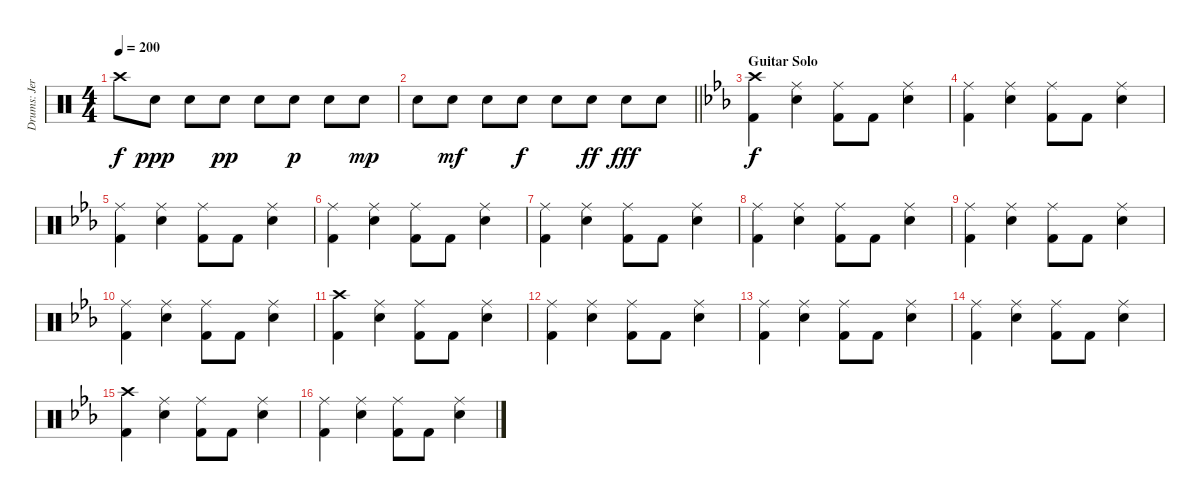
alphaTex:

\track ("Drums: Jere Luokkamäki" "Drums: Jer") {instrument percussion}
\staff {score}
\articulation defaults
\ts (4 4)
\tempo 200
\clef neutral
\ks aminor "Crash high (hit)".8{dy f} "Electric Snare (hit)".8{dy ppp} "Electric Snare (hit)".8 "Electric Snare (hit)".8{dy pp} "Electric Snare (hit)".8 "Electric Snare (hit)".8{dy p} "Electric Snare (hit)".8 "Electric Snare (hit)".8{dy mp}
|
\barLineRight lightlight "Electric Snare (hit)".8 "Electric Snare (hit)".8{dy mf} "Electric Snare (hit)".8 "Electric Snare (hit)".8{dy f} "Electric Snare (hit)".8 "Electric Snare (hit)".8{dy ff} "Electric Snare (hit)".8{dy fff} "Electric Snare (hit)".8
|
\section ("" "Guitar Solo")
\ks cminor
("Crash high (hit)" "Kick (hit) 2").4{dy f} ("Ride (middle)" "Electric Snare (hit)").4 ("Ride (middle)" "Kick (hit) 2").8 "Kick (hit) 2".8 ("Ride (middle)" "Electric Snare (hit)").4 |
("Ride (middle)" "Kick (hit) 2").4 ("Ride (middle)" "Electric Snare (hit)").4 ("Ride (middle)" "Kick (hit) 2").8 "Kick (hit) 2".8 ("Ride (middle)" "Electric Snare (hit)").4 |
("Ride (middle)" "Kick (hit) 2").4 ("Ride (middle)" "Electric Snare (hit)").4 ("Ride (middle)" "Kick (hit) 2").8 "Kick (hit) 2".8 ("Ride (middle)" "Electric Snare (hit)").4 |
("Ride (middle)" "Kick (hit) 2").4 ("Ride (middle)" "Electric Snare (hit)").4 ("Ride (middle)" "Kick (hit) 2").8 "Kick (hit) 2".8 ("Ride (middle)" "Electric Snare (hit)").4 |
("Ride (middle)" "Kick (hit) 2").4 ("Ride (middle)" "Electric Snare (hit)").4 ("Ride (middle)" "Kick (hit) 2").8 "Kick (hit) 2".8 ("Ride (middle)" "Electric Snare (hit)").4 |
("Ride (middle)" "Kick (hit) 2").4 ("Ride (middle)" "Electric Snare (hit)").4 ("Ride (middle)" "Kick (hit) 2").8 "Kick (hit) 2".8 ("Ride (middle)" "Electric Snare (hit)").4 |
("Ride (middle)" "Kick (hit) 2").4 ("Ride (middle)" "Electric Snare (hit)").4 ("Ride (middle)" "Kick (hit) 2").8 "Kick (hit) 2".8 ("Ride (middle)" "Electric Snare (hit)").4 |
("Ride (middle)" "Kick (hit) 2").4 ("Ride (middle)" "Electric Snare (hit)").4 ("Ride (middle)" "Kick (hit) 2").8 "Kick (hit) 2".8 ("Ride (middle)" "Electric Snare (hit)").4 |
("Crash high (hit)" "Kick (hit) 2").4 ("Ride (middle)" "Electric Snare (hit)").4 ("Ride (middle)" "Kick (hit) 2").8 "Kick (hit) 2".8 ("Ride (middle)" "Electric Snare (hit)").4 |
("Ride (middle)" "Kick (hit) 2").4 ("Ride (middle)" "Electric Snare (hit)").4 ("Ride (middle)" "Kick (hit) 2").8 "Kick (hit) 2".8 ("Ride (middle)" "Electric Snare (hit)").4 |
("Ride (middle)" "Kick (hit) 2").4 ("Ride (middle)" "Electric Snare (hit)").4 ("Ride (middle)" "Kick (hit) 2").8 "Kick (hit) 2".8 ("Ride (middle)" "Electric Snare (hit)").4 |
("Ride (middle)" "Kick (hit) 2").4 ("Ride (middle)" "Electric Snare (hit)").4 ("Ride (middle)" "Kick (hit) 2").8 "Kick (hit) 2".8 ("Ride (middle)" "Electric Snare (hit)").4 |
("Crash high (hit)" "Kick (hit) 2").4 ("Ride (middle)" "Electric Snare (hit)").4 ("Ride (middle)" "Kick (hit) 2").8 "Kick (hit) 2".8 ("Ride (middle)" "Electric Snare (hit)").4 |
("Ride (middle)" "Kick (hit) 2").4 ("Ride (middle)" "Electric Snare (hit)").4 ("Ride (middle)" "Kick (hit) 2").8 "Kick (hit) 2".8 ("Ride (middle)" "Electric Snare (hit)").4
